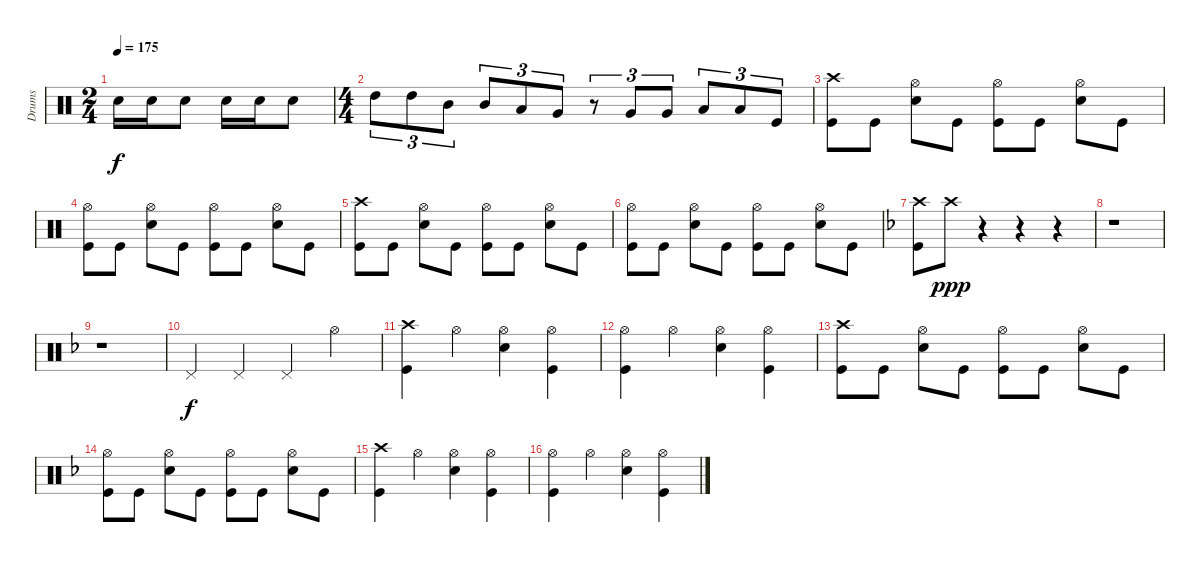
\track ("Drums" "Drums") {instrument percussion}
\staff {score}
\articulation defaults
\ts (2 4)
\tempo 175
\clef neutral
\ks c "Electric Snare (hit)".16{dy f} "Electric Snare (hit)".16 "Electric Snare (hit)".8 "Electric Snare (hit)".16 "Electric Snare (hit)".16 "Electric Snare (hit)".8
|
\ts (4 4)
"High Tom (hit)".8{tu (3 2)} "High Tom (hit)".8{tu (3 2)} "Mid Tom (hit)".8{tu (3 2)} "Mid Tom (hit)".8{tu (3 2)} "Low Tom (hit)".8{tu (3 2)} "Very Low Tom (hit)".8{tu (3 2)} r.8{tu (3 2)} "Very Low Tom (hit)".8{tu (3 2)} "Very Low Tom (hit)".8{tu (3 2)} "Low Floor Tom (hit)".8{tu (3 2)} "Low Floor Tom (hit)".8{tu (3 2)} "Kick (hit)".8{tu (3 2)} |
("Crash high (hit)" "Kick (hit)").8 "Kick (hit)".8 ("Hi-Hat (open)" "Electric Snare (hit)").8 "Kick (hit)".8 ("Hi-Hat (open)" "Kick (hit)").8 "Kick (hit)".8 ("Hi-Hat (open)" "Electric Snare (hit)").8 "Kick (hit)".8 |
("Hi-Hat (open)" "Kick (hit)").8 "Kick (hit)".8 ("Hi-Hat (open)" "Electric Snare (hit)").8 "Kick (hit)".8 ("Hi-Hat (open)" "Kick (hit)").8 "Kick (hit)".8 ("Hi-Hat (open)" "Electric Snare (hit)").8 "Kick (hit)".8 |
("Crash high (hit)" "Kick (hit)").8 "Kick (hit)".8 ("Hi-Hat (open)" "Electric Snare (hit)").8 "Kick (hit)".8 ("Hi-Hat (open)" "Kick (hit)").8 "Kick (hit)".8 ("Hi-Hat (open)" "Electric Snare (hit)").8 "Kick (hit)".8 |
("Hi-Hat (open)" "Kick (hit)").8 "Kick (hit)".8 ("Hi-Hat (open)" "Electric Snare (hit)").8 "Kick (hit)".8 ("Hi-Hat (open)" "Kick (hit)").8 "Kick (hit)".8 ("Hi-Hat (open)" "Electric Snare (hit)").8 "Kick (hit)".8 |
\ks dminor
("Crash high (hit)" "Kick (hit)").8 "Crash high (hit)".8{dy ppp} r.4 r.4 r.4 |
r.1 |
r.1 |
"Pedal Hi-Hat (hit)".4{dy f} "Pedal Hi-Hat (hit)".4 "Pedal Hi-Hat (hit)".4 "Hi-Hat (open)".4 |
("Crash high (hit)" "Kick (hit)").4 "Hi-Hat (open)".4 ("Hi-Hat (open)" "Electric Snare (hit)").4 ("Hi-Hat (open)" "Kick (hit)").4 |
("Hi-Hat (open)" "Kick (hit)").4 "Hi-Hat (open)".4 ("Hi-Hat (open)" "Electric Snare (hit)").4 ("Hi-Hat (open)" "Kick (hit)").4 |
("Crash high (hit)" "Kick (hit)").8 "Kick (hit)".8 ("Hi-Hat (open)" "Electric Snare (hit)").8 "Kick (hit)".8 ("Hi-Hat (open)" "Kick (hit)").8 "Kick (hit)".8 ("Hi-Hat (open)" "Electric Snare (hit)").8 "Kick (hit)".8 |
("Hi-Hat (open)" "Kick (hit)").8 "Kick (hit)".8 ("Hi-Hat (open)" "Electric Snare (hit)").8 "Kick (hit)".8 ("Hi-Hat (open)" "Kick (hit)").8 "Kick (hit)".8 ("Hi-Hat (open)" "Electric Snare (hit)").8 "Kick (hit)".8 |
("Crash high (hit)" "Kick (hit)").4 "Hi-Hat (open)".4 ("Hi-Hat (open)" "Electric Snare (hit)").4 ("Hi-Hat (open)" "Kick (hit)").4 |
("Hi-Hat (open)" "Kick (hit)").4 "Hi-Hat (open)".4 ("Hi-Hat (open)" "Electric Snare (hit)").4 ("Hi-Hat (open)" "Kick (hit)").4
